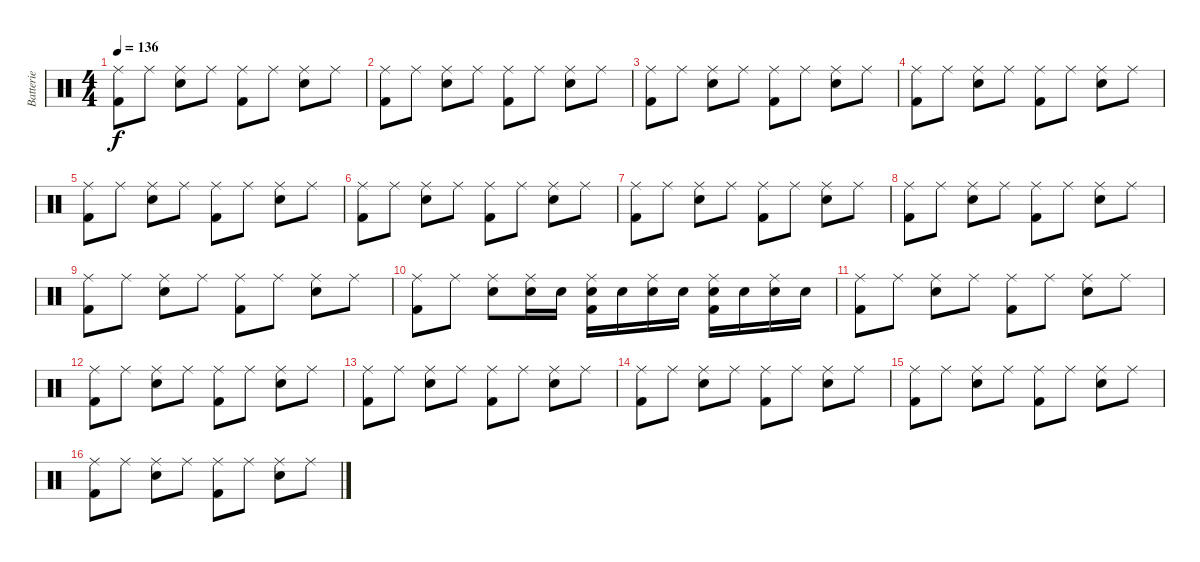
\track ("Batterie" "Batterie") {instrument percussion}
\staff {score}
\articulation defaults
\ts (4 4)
\tempo 136
\clef neutral
\ks c
("Ride (middle)" "Kick (hit) 2").8{dy f} "Ride (middle)".8 ("Ride (middle)" "Snare (hit) 2").8 "Ride (middle)".8 ("Ride (middle)" "Kick (hit) 2").8 "Ride (middle)".8 ("Ride (middle)" "Snare (hit) 2").8 "Ride (middle)".8 |
("Ride (middle)" "Kick (hit) 2").8 "Ride (middle)".8 ("Ride (middle)" "Snare (hit) 2").8 "Ride (middle)".8 ("Ride (middle)" "Kick (hit) 2").8 "Ride (middle)".8 ("Ride (middle)" "Snare (hit) 2").8 "Ride (middle)".8 |
("Ride (middle)" "Kick (hit) 2").8 "Ride (middle)".8 ("Ride (middle)" "Snare (hit) 2").8 "Ride (middle)".8 ("Ride (middle)" "Kick (hit) 2").8 "Ride (middle)".8 ("Ride (middle)" "Snare (hit) 2").8 "Ride (middle)".8 |
("Ride (middle)" "Kick (hit) 2").8 "Ride (middle)".8 ("Ride (middle)" "Snare (hit) 2").8 "Ride (middle)".8 ("Ride (middle)" "Kick (hit) 2").8 "Ride (middle)".8 ("Ride (middle)" "Snare (hit) 2").8 "Ride (middle)".8 |
("Ride (middle)" "Kick (hit) 2").8 "Ride (middle)".8 ("Ride (middle)" "Snare (hit) 2").8 "Ride (middle)".8 ("Ride (middle)" "Kick (hit) 2").8 "Ride (middle)".8 ("Ride (middle)" "Snare (hit) 2").8 "Ride (middle)".8 |
("Ride (middle)" "Kick (hit) 2").8 "Ride (middle)".8 ("Ride (middle)" "Snare (hit) 2").8 "Ride (middle)".8 ("Ride (middle)" "Kick (hit) 2").8 "Ride (middle)".8 ("Ride (middle)" "Snare (hit) 2").8 "Ride (middle)".8 |
("Ride (middle)" "Kick (hit) 2").8 "Ride (middle)".8 ("Ride (middle)" "Snare (hit) 2").8 "Ride (middle)".8 ("Ride (middle)" "Kick (hit) 2").8 "Ride (middle)".8 ("Ride (middle)" "Snare (hit) 2").8 "Ride (middle)".8 |
("Ride (middle)" "Kick (hit) 2").8 "Ride (middle)".8 ("Ride (middle)" "Snare (hit) 2").8 "Ride (middle)".8 ("Ride (middle)" "Kick (hit) 2").8 "Ride (middle)".8 ("Ride (middle)" "Snare (hit) 2").8 "Ride (middle)".8 |
("Ride (middle)" "Kick (hit) 2").8 "Ride (middle)".8 ("Ride (middle)" "Snare (hit) 2").8 "Ride (middle)".8 ("Ride (middle)" "Kick (hit) 2").8 "Ride (middle)".8 ("Ride (middle)" "Snare (hit) 2").8 "Ride (middle)".8 |
("Ride (middle)" "Kick (hit) 2").8 "Ride (middle)".8 ("Ride (middle)" "Snare (hit) 2").8 ("Ride (middle)" "Snare (hit) 2").16 "Snare (hit) 2".16 ("Ride (middle)" "Snare (hit) 2" "Kick (hit) 2").16 "Snare (hit) 2".16 ("Ride (middle)" "Snare (hit) 2").16 "Snare (hit) 2".16 ("Ride (middle)" "Snare (hit) 2" "Kick (hit) 2").16 "Snare (hit) 2".16 ("Ride (middle)" "Snare (hit) 2").16 "Snare (hit) 2".16 |
("Ride (middle)" "Kick (hit) 2").8 "Ride (middle)".8 ("Ride (middle)" "Snare (hit) 2").8 "Ride (middle)".8 ("Ride (middle)" "Kick (hit) 2").8 "Ride (middle)".8 ("Ride (middle)" "Snare (hit) 2").8 "Ride (middle)".8 |
("Ride (middle)" "Kick (hit) 2").8 "Ride (middle)".8 ("Ride (middle)" "Snare (hit) 2").8 "Ride (middle)".8 ("Ride (middle)" "Kick (hit) 2").8 "Ride (middle)".8 ("Ride (middle)" "Snare (hit) 2").8 "Ride (middle)".8 |
("Ride (middle)" "Kick (hit) 2").8 "Ride (middle)".8 ("Ride (middle)" "Snare (hit) 2").8 "Ride (middle)".8 ("Ride (middle)" "Kick (hit) 2").8 "Ride (middle)".8 ("Ride (middle)" "Snare (hit) 2").8 "Ride (middle)".8 |
("Ride (middle)" "Kick (hit) 2").8 "Ride (middle)".8 ("Ride (middle)" "Snare (hit) 2").8 "Ride (middle)".8 ("Ride (middle)" "Kick (hit) 2").8 "Ride (middle)".8 ("Ride (middle)" "Snare (hit) 2").8 "Ride (middle)".8 |
("Ride (middle)" "Kick (hit) 2").8 "Ride (middle)".8 ("Ride (middle)" "Snare (hit) 2").8 "Ride (middle)".8 ("Ride (middle)" "Kick (hit) 2").8 "Ride (middle)".8 ("Ride (middle)" "Snare (hit) 2").8 "Ride (middle)".8 |
("Ride (middle)" "Kick (hit) 2").8 "Ride (middle)".8 ("Ride (middle)" "Snare (hit) 2").8 "Ride (middle)".8 ("Ride (middle)" "Kick (hit) 2").8 "Ride (middle)".8 ("Ride (middle)" "Snare (hit) 2").8 "Ride (middle)".8
